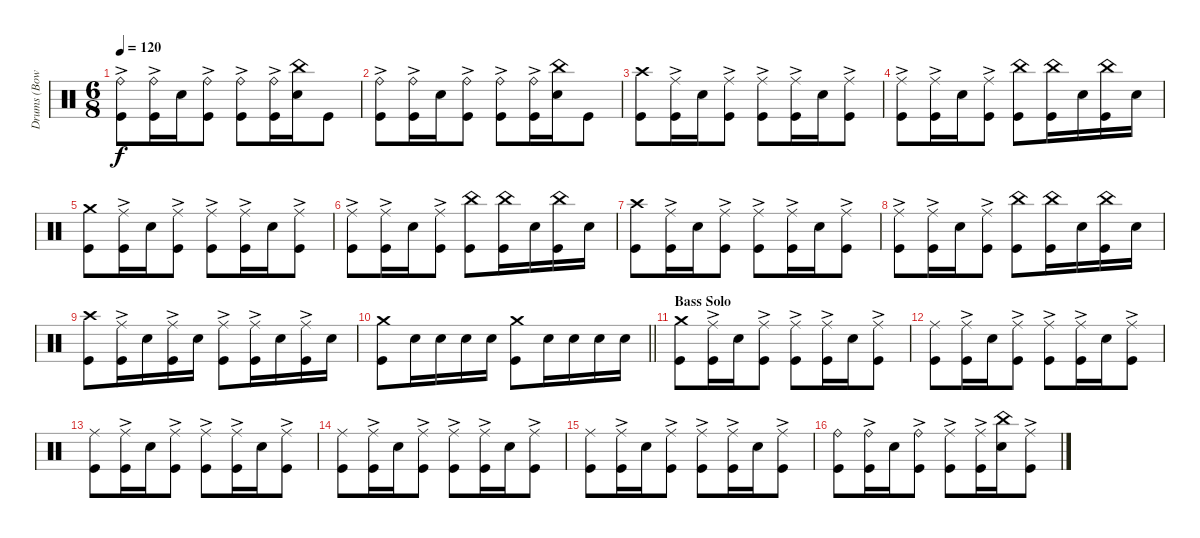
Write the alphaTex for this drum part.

\track ("Drums (Bowders)" "Drums (Bow") {instrument percussion}
\staff {score}
\articulation defaults
\ts (6 8)
\tempo 120
\clef neutral
\ks c
("Kick (hit)" "Ride (bell)"{ac}).8{dy f} ("Kick (hit)" "Ride (bell)"{ac}).16 "Snare (hit) 2".16 ("Kick (hit)" "Ride (bell)"{ac}).8 ("Kick (hit)" "Ride (bell)"{ac}).8 ("Kick (hit)" "Ride (bell)"{ac}).16 ("Snare (hit) 2" "China (hit)").16 "Kick (hit)".8 |
("Kick (hit)" "Ride (bell)"{ac}).8 ("Kick (hit)" "Ride (bell)"{ac}).16 "Snare (hit) 2".16 ("Kick (hit)" "Ride (bell)"{ac}).8 ("Kick (hit)" "Ride (bell)"{ac}).8 ("Kick (hit)" "Ride (bell)"{ac}).16 ("Snare (hit) 2" "China (hit)").16 "Kick (hit)".8 |
("Kick (hit)" "Crash high (hit)").8 ("Kick (hit)" "Ride (middle)"{ac}).16 "Snare (hit) 2".16 ("Kick (hit)" "Ride (middle)"{ac}).8 ("Kick (hit)" "Ride (middle)"{ac}).8 ("Kick (hit)" "Ride (middle)"{ac}).16 "Snare (hit) 2".16 ("Kick (hit)" "Ride (middle)"{ac}).8 |
("Kick (hit)" "Ride (middle)"{ac}).8 ("Kick (hit)" "Ride (middle)"{ac}).16 "Snare (hit) 2".16 ("Kick (hit)" "Ride (middle)"{ac}).8 ("Kick (hit)" "China (hit)").8 ("Kick (hit)" "China (hit)").16 "Snare (hit) 2".16 ("Kick (hit)" "China (hit)").16 "Snare (hit) 2".16 |
("Kick (hit)" "Crash medium (hit)").8 ("Kick (hit)" "Ride (middle)"{ac}).16 "Snare (hit) 2".16 ("Kick (hit)" "Ride (middle)"{ac}).8 ("Kick (hit)" "Ride (middle)"{ac}).8 ("Kick (hit)" "Ride (middle)"{ac}).16 "Snare (hit) 2".16 ("Kick (hit)" "Ride (middle)"{ac}).8 |
("Kick (hit)" "Ride (middle)"{ac}).8 ("Kick (hit)" "Ride (middle)"{ac}).16 "Snare (hit) 2".16 ("Kick (hit)" "Ride (middle)"{ac}).8 ("Kick (hit)" "China (hit)").8 ("Kick (hit)" "China (hit)").16 "Snare (hit) 2".16 ("Kick (hit)" "China (hit)").16 "Snare (hit) 2".16 |
("Kick (hit)" "Crash high (hit)").8 ("Kick (hit)" "Ride (middle)"{ac}).16 "Snare (hit) 2".16 ("Kick (hit)" "Ride (middle)"{ac}).8 ("Kick (hit)" "Ride (middle)"{ac}).8 ("Kick (hit)" "Ride (middle)"{ac}).16 "Snare (hit) 2".16 ("Kick (hit)" "Ride (middle)"{ac}).8 |
("Kick (hit)" "Ride (middle)"{ac}).8 ("Kick (hit)" "Ride (middle)"{ac}).16 "Snare (hit) 2".16 ("Kick (hit)" "Ride (middle)"{ac}).8 ("Kick (hit)" "China (hit)").8 ("Kick (hit)" "China (hit)").16 "Snare (hit) 2".16 ("Kick (hit)" "China (hit)").16 "Snare (hit) 2".16 |
("Kick (hit)" "Crash high (hit)").8 ("Kick (hit)" "Ride (middle)"{ac}).16 "Snare (hit) 2".16 ("Kick (hit)" "Ride (middle)"{ac}).16 "Snare (hit) 2".16 ("Kick (hit)" "Ride (middle)"{ac}).8 ("Kick (hit)" "Ride (middle)"{ac}).16 "Snare (hit) 2".16 ("Kick (hit)" "Ride (middle)"{ac}).16 "Snare (hit) 2".16 |
\barLineRight lightlight
("Kick (hit)" "Crash medium (hit)").8 "Snare (hit) 2".16 "Snare (hit) 2".16 "Snare (hit) 2".16 "Snare (hit) 2".16 ("Kick (hit)" "Crash medium (hit)").8 "Snare (hit) 2".16 "Snare (hit) 2".16 "Snare (hit) 2".16 "Snare (hit) 2".16 |
\section ("" "Bass Solo")
("Kick (hit)" "Crash medium (hit)").8 ("Kick (hit)" "Ride (middle)"{ac}).16 "Snare (hit) 2".16 ("Kick (hit)" "Ride (middle)"{ac}).8 ("Kick (hit)" "Ride (middle)"{ac}).8 ("Kick (hit)" "Ride (middle)"{ac}).16 "Snare (hit) 2".16 ("Kick (hit)" "Ride (middle)"{ac}).8 |
("Kick (hit)" "Ride (middle)").8 ("Kick (hit)" "Ride (middle)"{ac}).16 "Snare (hit) 2".16 ("Kick (hit)" "Ride (middle)"{ac}).8 ("Kick (hit)" "Ride (middle)"{ac}).8 ("Kick (hit)" "Ride (middle)"{ac}).16 "Snare (hit) 2".16 ("Kick (hit)" "Ride (middle)"{ac}).8 |
("Kick (hit)" "Ride (middle)").8 ("Kick (hit)" "Ride (middle)"{ac}).16 "Snare (hit) 2".16 ("Kick (hit)" "Ride (middle)"{ac}).8 ("Kick (hit)" "Ride (middle)"{ac}).8 ("Kick (hit)" "Ride (middle)"{ac}).16 "Snare (hit) 2".16 ("Kick (hit)" "Ride (middle)"{ac}).8 |
("Kick (hit)" "Ride (middle)").8 ("Kick (hit)" "Ride (middle)"{ac}).16 "Snare (hit) 2".16 ("Kick (hit)" "Ride (middle)"{ac}).8 ("Kick (hit)" "Ride (middle)"{ac}).8 ("Kick (hit)" "Ride (middle)"{ac}).16 "Snare (hit) 2".16 ("Kick (hit)" "Ride (middle)"{ac}).8 |
("Kick (hit)" "Ride (middle)").8 ("Kick (hit)" "Ride (middle)"{ac}).16 "Snare (hit) 2".16 ("Kick (hit)" "Ride (middle)"{ac}).8 ("Kick (hit)" "Ride (middle)"{ac}).8 ("Kick (hit)" "Ride (middle)"{ac}).16 "Snare (hit) 2".16 ("Kick (hit)" "Ride (middle)"{ac}).8 |
("Kick (hit)" "Ride (bell)").8 ("Kick (hit)" "Ride (bell)"{ac}).16 "Snare (hit) 2".16 ("Kick (hit)" "Ride (bell)"{ac}).8 ("Kick (hit)" "Ride (middle)"{ac}).8 ("Kick (hit)" "Ride (middle)"{ac}).16 ("Snare (hit) 2" "China (hit)").16 ("Kick (hit)" "Ride (middle)"{ac}).8
